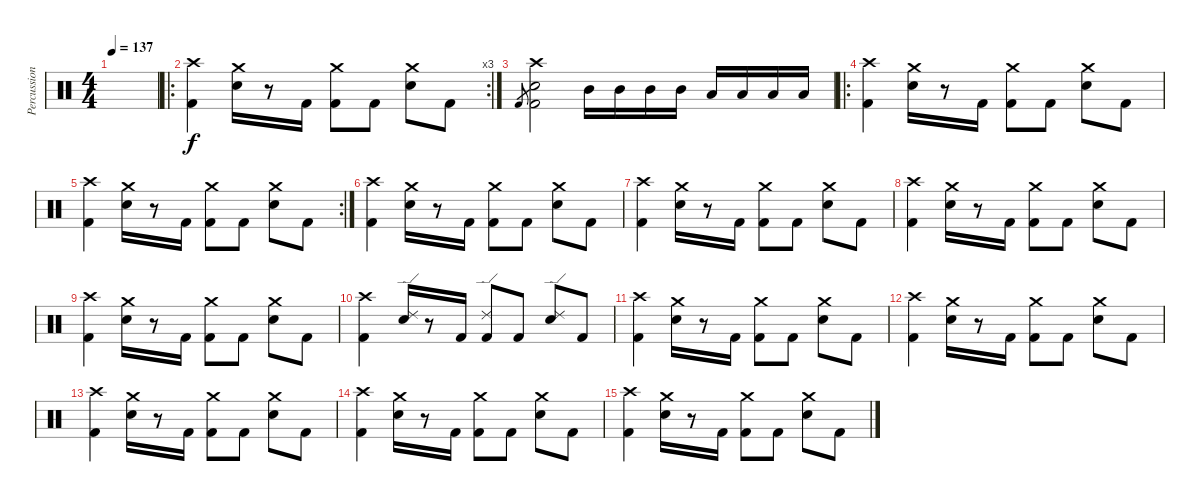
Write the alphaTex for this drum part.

\track ("Percussion" "Percussion") {instrument percussion}
\staff {score}
\articulation defaults
\ts (4 4)
\tempo 137
\clef neutral
\ks c
|
\ro
\rc 3
("Crash high (hit)" "Kick (hit) 2").4 ("Crash medium (hit)" "Snare (hit) 2").16 r.8 "Kick (hit) 2".16 ("Crash medium (hit)" "Kick (hit) 2").8 "Kick (hit) 2".8 ("Crash medium (hit)" "Snare (hit) 2").8 "Kick (hit) 2".8 |
"Kick (hit) 2".8{gr} ("Crash high (hit)" "Snare (hit) 2" "Kick (hit) 2").2 "Mid Tom (hit)".16 "Mid Tom (hit)".16 "Mid Tom (hit)".16 "Mid Tom (hit)".16 "Low Tom (hit)".16 "Low Tom (hit)".16 "Low Tom (hit)".16 "Low Tom (hit)".16 |
\ro
("Crash high (hit)" "Kick (hit) 2").4 ("Crash medium (hit)" "Snare (hit) 2").16 r.8 "Kick (hit) 2".16 ("Crash medium (hit)" "Kick (hit) 2").8 "Kick (hit) 2".8 ("Crash medium (hit)" "Snare (hit) 2").8 "Kick (hit) 2".8 |
\rc 2
("Crash high (hit)" "Kick (hit) 2").4 ("Crash medium (hit)" "Snare (hit) 2").16 r.8 "Kick (hit) 2".16 ("Crash medium (hit)" "Kick (hit) 2").8 "Kick (hit) 2".8 ("Crash medium (hit)" "Snare (hit) 2").8 "Kick (hit) 2".8 |
("Crash high (hit)" "Kick (hit) 2").4 ("Crash medium (hit)" "Snare (hit) 2").16 r.8 "Kick (hit) 2".16 ("Crash medium (hit)" "Kick (hit) 2").8 "Kick (hit) 2".8 ("Crash medium (hit)" "Snare (hit) 2").8 "Kick (hit) 2".8 |
("Crash high (hit)" "Kick (hit) 2").4 ("Crash medium (hit)" "Snare (hit) 2").16 r.8 "Kick (hit) 2".16 ("Crash medium (hit)" "Kick (hit) 2").8 "Kick (hit) 2".8 ("Crash medium (hit)" "Snare (hit) 2").8 "Kick (hit) 2".8 |
("Crash high (hit)" "Kick (hit) 2").4 ("Crash medium (hit)" "Snare (hit) 2").16 r.8 "Kick (hit) 2".16 ("Crash medium (hit)" "Kick (hit) 2").8 "Kick (hit) 2".8 ("Crash medium (hit)" "Snare (hit) 2").8 "Kick (hit) 2".8 |
("Crash high (hit)" "Kick (hit) 2").4 ("Crash medium (hit)" "Snare (hit) 2").16 r.8 "Kick (hit) 2".16 ("Crash medium (hit)" "Kick (hit) 2").8 "Kick (hit) 2".8 ("Crash medium (hit)" "Snare (hit) 2").8 "Kick (hit) 2".8 |
("Crash high (hit)" "Kick (hit) 2").4 ("Ride (edge) 2" "Snare (hit) 2").16 r.8 "Kick (hit) 2".16 ("Ride (edge) 2" "Kick (hit) 2").8 "Kick (hit) 2".8 ("Ride (edge) 2" "Snare (hit) 2").8 "Kick (hit) 2".8 |
("Crash high (hit)" "Kick (hit) 2").4 ("Crash medium (hit)" "Snare (hit) 2").16 r.8 "Kick (hit) 2".16 ("Crash medium (hit)" "Kick (hit) 2").8 "Kick (hit) 2".8 ("Crash medium (hit)" "Snare (hit) 2").8 "Kick (hit) 2".8 |
("Crash high (hit)" "Kick (hit) 2").4 ("Crash medium (hit)" "Snare (hit) 2").16 r.8 "Kick (hit) 2".16 ("Crash medium (hit)" "Kick (hit) 2").8 "Kick (hit) 2".8 ("Crash medium (hit)" "Snare (hit) 2").8 "Kick (hit) 2".8 |
("Crash high (hit)" "Kick (hit) 2").4 ("Crash medium (hit)" "Snare (hit) 2").16 r.8 "Kick (hit) 2".16 ("Crash medium (hit)" "Kick (hit) 2").8 "Kick (hit) 2".8 ("Crash medium (hit)" "Snare (hit) 2").8 "Kick (hit) 2".8 |
("Crash high (hit)" "Kick (hit) 2").4 ("Crash medium (hit)" "Snare (hit) 2").16 r.8 "Kick (hit) 2".16 ("Crash medium (hit)" "Kick (hit) 2").8 "Kick (hit) 2".8 ("Crash medium (hit)" "Snare (hit) 2").8 "Kick (hit) 2".8 |
("Crash high (hit)" "Kick (hit) 2").4 ("Crash medium (hit)" "Snare (hit) 2").16 r.8 "Kick (hit) 2".16 ("Crash medium (hit)" "Kick (hit) 2").8 "Kick (hit) 2".8 ("Crash medium (hit)" "Snare (hit) 2").8 "Kick (hit) 2".8
